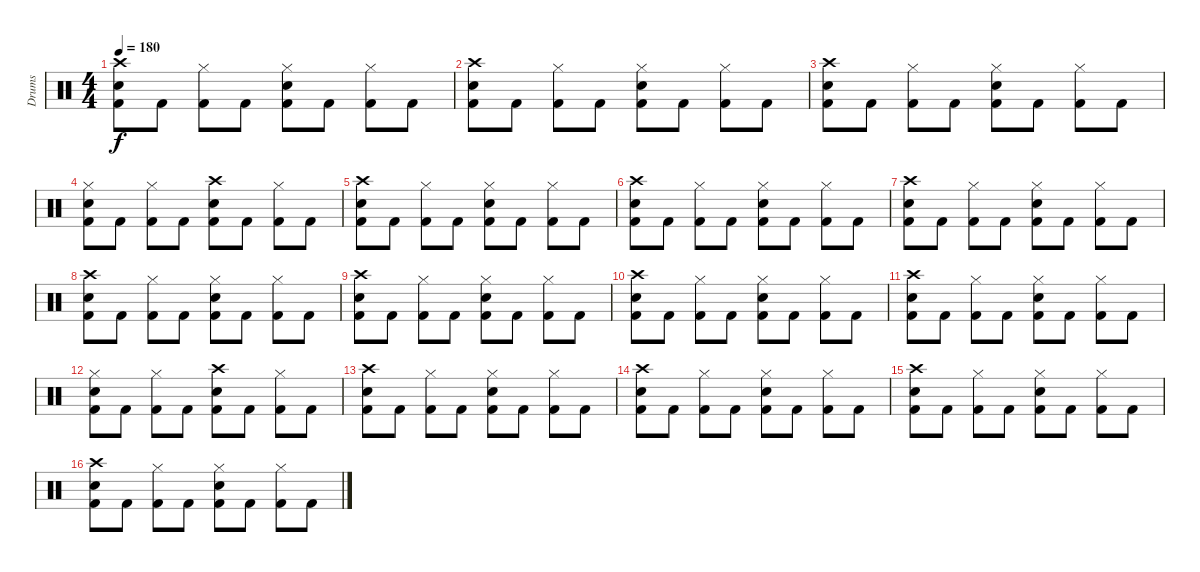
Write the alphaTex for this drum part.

\track ("Drums" "Drums") {instrument percussion}
\staff {score}
\articulation defaults
\ts (4 4)
\tempo 180
\clef neutral
\ks c
("Crash high (hit)" "Electric Snare (hit)" "Kick (hit) 2").8{dy f} "Kick (hit) 2".8 ("Hi-Hat (closed)" "Kick (hit) 2").8 "Kick (hit) 2".8 ("Hi-Hat (closed)" "Electric Snare (hit)" "Kick (hit) 2").8 "Kick (hit) 2".8 ("Hi-Hat (closed)" "Kick (hit) 2").8 "Kick (hit) 2".8 |
("Crash high (hit)" "Electric Snare (hit)" "Kick (hit) 2").8 "Kick (hit) 2".8 ("Hi-Hat (closed)" "Kick (hit) 2").8 "Kick (hit) 2".8 ("Hi-Hat (closed)" "Electric Snare (hit)" "Kick (hit) 2").8 "Kick (hit) 2".8 ("Hi-Hat (closed)" "Kick (hit) 2").8 "Kick (hit) 2".8 |
("Crash high (hit)" "Electric Snare (hit)" "Kick (hit) 2").8 "Kick (hit) 2".8 ("Hi-Hat (closed)" "Kick (hit) 2").8 "Kick (hit) 2".8 ("Hi-Hat (closed)" "Electric Snare (hit)" "Kick (hit) 2").8 "Kick (hit) 2".8 ("Hi-Hat (closed)" "Kick (hit) 2").8 "Kick (hit) 2".8 |
("Hi-Hat (closed)" "Electric Snare (hit)" "Kick (hit) 2").8 "Kick (hit) 2".8 ("Hi-Hat (closed)" "Kick (hit) 2").8 "Kick (hit) 2".8 ("Crash high (hit)" "Electric Snare (hit)" "Kick (hit) 2").8 "Kick (hit) 2".8 ("Hi-Hat (closed)" "Kick (hit) 2").8 "Kick (hit) 2".8 |
("Crash high (hit)" "Electric Snare (hit)" "Kick (hit) 2").8 "Kick (hit) 2".8 ("Hi-Hat (closed)" "Kick (hit) 2").8 "Kick (hit) 2".8 ("Hi-Hat (closed)" "Electric Snare (hit)" "Kick (hit) 2").8 "Kick (hit) 2".8 ("Hi-Hat (closed)" "Kick (hit) 2").8 "Kick (hit) 2".8 |
("Crash high (hit)" "Electric Snare (hit)" "Kick (hit) 2").8 "Kick (hit) 2".8 ("Hi-Hat (closed)" "Kick (hit) 2").8 "Kick (hit) 2".8 ("Hi-Hat (closed)" "Electric Snare (hit)" "Kick (hit) 2").8 "Kick (hit) 2".8 ("Hi-Hat (closed)" "Kick (hit) 2").8 "Kick (hit) 2".8 |
("Crash high (hit)" "Electric Snare (hit)" "Kick (hit) 2").8 "Kick (hit) 2".8 ("Hi-Hat (closed)" "Kick (hit) 2").8 "Kick (hit) 2".8 ("Hi-Hat (closed)" "Electric Snare (hit)" "Kick (hit) 2").8 "Kick (hit) 2".8 ("Hi-Hat (closed)" "Kick (hit) 2").8 "Kick (hit) 2".8 |
("Crash high (hit)" "Electric Snare (hit)" "Kick (hit) 2").8 "Kick (hit) 2".8 ("Hi-Hat (closed)" "Kick (hit) 2").8 "Kick (hit) 2".8 ("Hi-Hat (closed)" "Electric Snare (hit)" "Kick (hit) 2").8 "Kick (hit) 2".8 ("Hi-Hat (closed)" "Kick (hit) 2").8 "Kick (hit) 2".8 |
("Crash high (hit)" "Electric Snare (hit)" "Kick (hit) 2").8 "Kick (hit) 2".8 ("Hi-Hat (closed)" "Kick (hit) 2").8 "Kick (hit) 2".8 ("Hi-Hat (closed)" "Electric Snare (hit)" "Kick (hit) 2").8 "Kick (hit) 2".8 ("Hi-Hat (closed)" "Kick (hit) 2").8 "Kick (hit) 2".8 |
("Crash high (hit)" "Electric Snare (hit)" "Kick (hit) 2").8 "Kick (hit) 2".8 ("Hi-Hat (closed)" "Kick (hit) 2").8 "Kick (hit) 2".8 ("Hi-Hat (closed)" "Electric Snare (hit)" "Kick (hit) 2").8 "Kick (hit) 2".8 ("Hi-Hat (closed)" "Kick (hit) 2").8 "Kick (hit) 2".8 |
("Crash high (hit)" "Electric Snare (hit)" "Kick (hit) 2").8 "Kick (hit) 2".8 ("Hi-Hat (closed)" "Kick (hit) 2").8 "Kick (hit) 2".8 ("Hi-Hat (closed)" "Electric Snare (hit)" "Kick (hit) 2").8 "Kick (hit) 2".8 ("Hi-Hat (closed)" "Kick (hit) 2").8 "Kick (hit) 2".8 |
("Hi-Hat (closed)" "Electric Snare (hit)" "Kick (hit) 2").8 "Kick (hit) 2".8 ("Hi-Hat (closed)" "Kick (hit) 2").8 "Kick (hit) 2".8 ("Crash high (hit)" "Electric Snare (hit)" "Kick (hit) 2").8 "Kick (hit) 2".8 ("Hi-Hat (closed)" "Kick (hit) 2").8 "Kick (hit) 2".8 |
("Crash high (hit)" "Electric Snare (hit)" "Kick (hit) 2").8 "Kick (hit) 2".8 ("Hi-Hat (closed)" "Kick (hit) 2").8 "Kick (hit) 2".8 ("Hi-Hat (closed)" "Electric Snare (hit)" "Kick (hit) 2").8 "Kick (hit) 2".8 ("Hi-Hat (closed)" "Kick (hit) 2").8 "Kick (hit) 2".8 |
("Crash high (hit)" "Electric Snare (hit)" "Kick (hit) 2").8 "Kick (hit) 2".8 ("Hi-Hat (closed)" "Kick (hit) 2").8 "Kick (hit) 2".8 ("Hi-Hat (closed)" "Electric Snare (hit)" "Kick (hit) 2").8 "Kick (hit) 2".8 ("Hi-Hat (closed)" "Kick (hit) 2").8 "Kick (hit) 2".8 |
("Crash high (hit)" "Electric Snare (hit)" "Kick (hit) 2").8 "Kick (hit) 2".8 ("Hi-Hat (closed)" "Kick (hit) 2").8 "Kick (hit) 2".8 ("Hi-Hat (closed)" "Electric Snare (hit)" "Kick (hit) 2").8 "Kick (hit) 2".8 ("Hi-Hat (closed)" "Kick (hit) 2").8 "Kick (hit) 2".8 |
("Crash high (hit)" "Electric Snare (hit)" "Kick (hit) 2").8 "Kick (hit) 2".8 ("Hi-Hat (closed)" "Kick (hit) 2").8 "Kick (hit) 2".8 ("Hi-Hat (closed)" "Electric Snare (hit)" "Kick (hit) 2").8 "Kick (hit) 2".8 ("Hi-Hat (closed)" "Kick (hit) 2").8 "Kick (hit) 2".8
